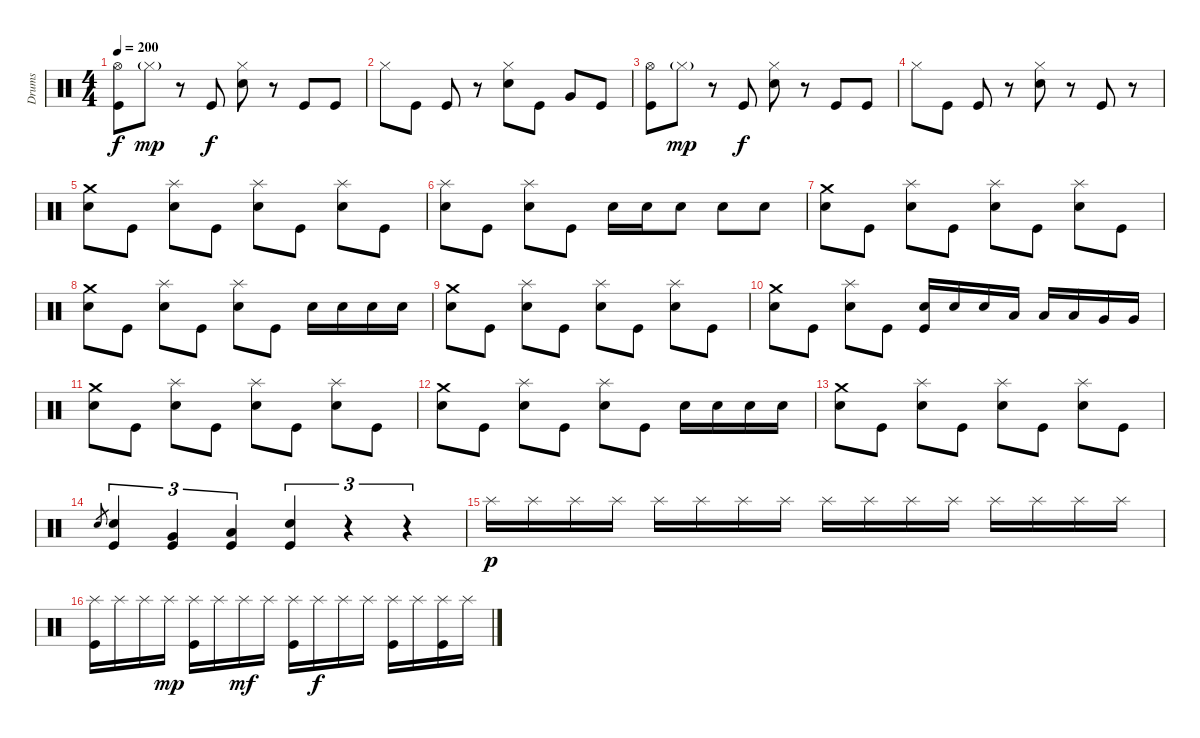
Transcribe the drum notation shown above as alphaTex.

\track ("Drums" "Drums") {instrument percussion}
\staff {score}
\articulation defaults
\ts (4 4)
\tempo 200
\clef neutral
\ks c
("Hi-Hat (open)" "Kick (hit)").8{dy f} "Hi-Hat (closed)"{g}.8{dy mp} r.8 "Kick (hit)".8{dy f} ("Hi-Hat (closed)" "Electric Snare (hit)").8 r.8 "Kick (hit)".8 "Kick (hit)".8 |
"Hi-Hat (closed)".8 "Kick (hit)".8 "Kick (hit)".8 r.8 ("Hi-Hat (closed)" "Electric Snare (hit)").8 "Kick (hit)".8 "Very Low Tom (hit)".8 "Kick (hit)".8 |
("Hi-Hat (open)" "Kick (hit)").8 "Hi-Hat (closed)"{g}.8{dy mp} r.8 "Kick (hit)".8{dy f} ("Hi-Hat (closed)" "Electric Snare (hit)").8 r.8 "Kick (hit)".8 "Kick (hit)".8 |
"Hi-Hat (closed)".8 "Kick (hit)".8 "Kick (hit)".8 r.8 ("Hi-Hat (closed)" "Electric Snare (hit)").8 r.8 "Kick (hit)".8 r.8 |
("Crash medium (hit)" "Electric Snare (hit)").8 "Kick (hit)".8 ("Splash (hit)" "Electric Snare (hit)").8 "Kick (hit)".8 ("Splash (hit)" "Electric Snare (hit)").8 "Kick (hit)".8 ("Splash (hit)" "Electric Snare (hit)").8 "Kick (hit)".8 |
("Splash (hit)" "Electric Snare (hit)").8 "Kick (hit)".8 ("Splash (hit)" "Electric Snare (hit)").8 "Kick (hit)".8 "Electric Snare (hit)".16 "Electric Snare (hit)".16 "Electric Snare (hit)".8 "Electric Snare (hit)".8 "Electric Snare (hit)".8 |
("Crash medium (hit)" "Electric Snare (hit)").8 "Kick (hit)".8 ("Splash (hit)" "Electric Snare (hit)").8 "Kick (hit)".8 ("Splash (hit)" "Electric Snare (hit)").8 "Kick (hit)".8 ("Splash (hit)" "Electric Snare (hit)").8 "Kick (hit)".8 |
("Crash medium (hit)" "Electric Snare (hit)").8 "Kick (hit)".8 ("Splash (hit)" "Electric Snare (hit)").8 "Kick (hit)".8 ("Splash (hit)" "Electric Snare (hit)").8 "Kick (hit)".8 "Electric Snare (hit)".16 "Electric Snare (hit)".16 "Electric Snare (hit)".16 "Electric Snare (hit)".16 |
("Crash medium (hit)" "Electric Snare (hit)").8 "Kick (hit)".8 ("Splash (hit)" "Electric Snare (hit)").8 "Kick (hit)".8 ("Splash (hit)" "Electric Snare (hit)").8 "Kick (hit)".8 ("Splash (hit)" "Electric Snare (hit)").8 "Kick (hit)".8 |
("Crash medium (hit)" "Electric Snare (hit)").8 "Kick (hit)".8 ("Splash (hit)" "Electric Snare (hit)").8 "Kick (hit)".8 ("Electric Snare (hit)" "Kick (hit)").16 "Electric Snare (hit)".16 "Electric Snare (hit)".16 "Low Tom (hit)".16 "Low Tom (hit)".16 "Low Tom (hit)".16 "Very Low Tom (hit)".16 "Very Low Tom (hit)".16 |
("Crash medium (hit)" "Electric Snare (hit)").8 "Kick (hit)".8 ("Splash (hit)" "Electric Snare (hit)").8 "Kick (hit)".8 ("Splash (hit)" "Electric Snare (hit)").8 "Kick (hit)".8 ("Splash (hit)" "Electric Snare (hit)").8 "Kick (hit)".8 |
("Crash medium (hit)" "Electric Snare (hit)").8 "Kick (hit)".8 ("Splash (hit)" "Electric Snare (hit)").8 "Kick (hit)".8 ("Splash (hit)" "Electric Snare (hit)").8 "Kick (hit)".8 "Electric Snare (hit)".16 "Electric Snare (hit)".16 "Electric Snare (hit)".16 "Electric Snare (hit)".16 |
("Crash medium (hit)" "Electric Snare (hit)").8 "Kick (hit)".8 ("Splash (hit)" "Electric Snare (hit)").8 "Kick (hit)".8 ("Splash (hit)" "Electric Snare (hit)").8 "Kick (hit)".8 ("Splash (hit)" "Electric Snare (hit)").8 "Kick (hit)".8 |
"Electric Snare (hit)".8{gr} ("Electric Snare (hit)" "Kick (hit)").4{tu (3 2)} ("Very Low Tom (hit)" "Kick (hit)").4{tu (3 2)} ("Low Floor Tom (hit)" "Kick (hit)").4{tu (3 2)} ("Electric Snare (hit)" "Kick (hit)").4{tu (3 2)} r.4{tu (3 2)} r.4{tu (3 2)} |
"Splash (hit)".16{dy p} "Splash (hit)".16 "Splash (hit)".16 "Splash (hit)".16 "Splash (hit)".16 "Splash (hit)".16 "Splash (hit)".16 "Splash (hit)".16 "Splash (hit)".16 "Splash (hit)".16 "Splash (hit)".16 "Splash (hit)".16 "Splash (hit)".16 "Splash (hit)".16 "Splash (hit)".16 "Splash (hit)".16 |
("Splash (hit)" "Kick (hit)").16 "Splash (hit)".16 "Splash (hit)".16 "Splash (hit)".16{dy mp} ("Splash (hit)" "Kick (hit)").16 "Splash (hit)".16 "Splash (hit)".16{dy mf} "Splash (hit)".16 ("Splash (hit)" "Kick (hit)").16 "Splash (hit)".16{dy f} "Splash (hit)".16 "Splash (hit)".16 ("Splash (hit)" "Kick (hit)").16 "Splash (hit)".16 ("Splash (hit)" "Kick (hit)").16 "Splash (hit)".16
